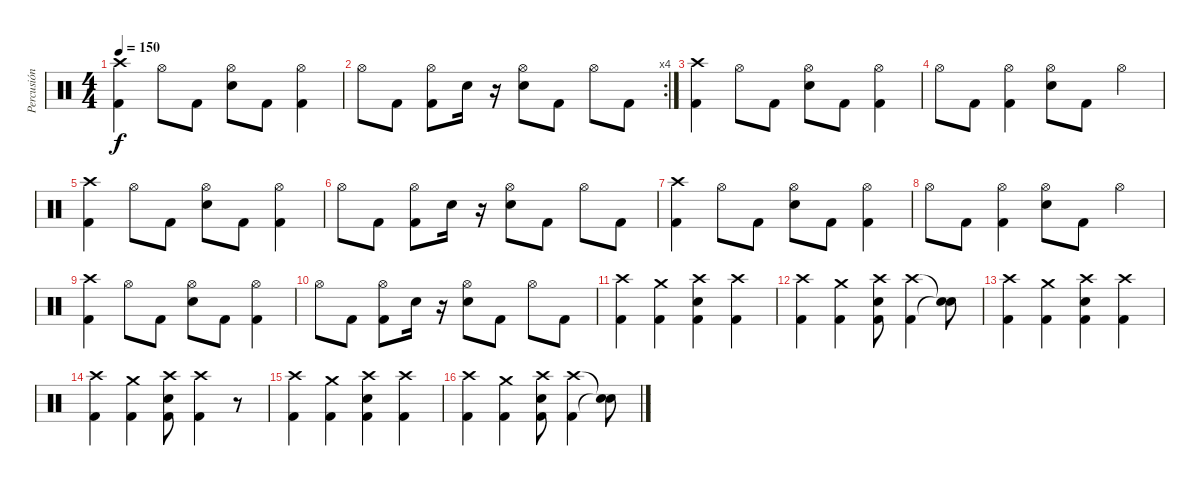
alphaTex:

\track ("Percusión" "Percusión") {instrument percussion}
\staff {score}
\articulation defaults
\ts (4 4)
\tempo 150
\clef neutral
\ks c
("Crash high (hit)" "Kick (hit) 2").4{dy f} "Hi-Hat (open)".8 "Kick (hit) 2".8 ("Hi-Hat (open)" "Snare (hit) 2").8 "Kick (hit) 2".8 ("Hi-Hat (open)" "Kick (hit) 2").4 |
\rc 4 "Hi-Hat (open)".8 "Kick (hit) 2".8
("Hi-Hat (open)" "Kick (hit) 2").8 "Snare (hit) 2".16 r.16 ("Hi-Hat (open)" "Snare (hit) 2").8 "Kick (hit) 2".8 "Hi-Hat (open)".8 "Kick (hit) 2".8 |
("Crash high (hit)" "Kick (hit) 2").4 "Hi-Hat (open)".8 "Kick (hit) 2".8 ("Hi-Hat (open)" "Snare (hit) 2").8 "Kick (hit) 2".8 ("Hi-Hat (open)" "Kick (hit) 2").4 |
"Hi-Hat (open)".8 "Kick (hit) 2".8 ("Hi-Hat (open)" "Kick (hit) 2").4 ("Hi-Hat (open)" "Snare (hit) 2").8 "Kick (hit) 2".8 "Hi-Hat (open)".4 |
("Crash high (hit)" "Kick (hit) 2").4 "Hi-Hat (open)".8 "Kick (hit) 2".8 ("Hi-Hat (open)" "Snare (hit) 2").8 "Kick (hit) 2".8 ("Hi-Hat (open)" "Kick (hit) 2").4 |
"Hi-Hat (open)".8 "Kick (hit) 2".8 ("Hi-Hat (open)" "Kick (hit) 2").8 "Snare (hit) 2".16 r.16 ("Hi-Hat (open)" "Snare (hit) 2").8 "Kick (hit) 2".8 "Hi-Hat (open)".8 "Kick (hit) 2".8 |
("Crash high (hit)" "Kick (hit) 2").4 "Hi-Hat (open)".8 "Kick (hit) 2".8 ("Hi-Hat (open)" "Snare (hit) 2").8 "Kick (hit) 2".8 ("Hi-Hat (open)" "Kick (hit) 2").4 |
"Hi-Hat (open)".8 "Kick (hit) 2".8 ("Hi-Hat (open)" "Kick (hit) 2").4 ("Hi-Hat (open)" "Snare (hit) 2").8 "Kick (hit) 2".8 "Hi-Hat (open)".4 |
("Crash high (hit)" "Kick (hit) 2").4 "Hi-Hat (open)".8 "Kick (hit) 2".8 ("Hi-Hat (open)" "Snare (hit) 2").8 "Kick (hit) 2".8 ("Hi-Hat (open)" "Kick (hit) 2").4 |
"Hi-Hat (open)".8 "Kick (hit) 2".8 ("Hi-Hat (open)" "Kick (hit) 2").8 "Snare (hit) 2".16 r.16 ("Hi-Hat (open)" "Snare (hit) 2").8 "Kick (hit) 2".8 "Hi-Hat (open)".8 "Kick (hit) 2".8 |
("Crash high (hit)" "Kick (hit) 2").4 ("Crash medium (hit)" "Kick (hit) 2").4 ("Crash high (hit)" "Snare (hit) 2" "Kick (hit) 2").4 ("Crash high (hit)" "Kick (hit) 2").4 |
("Crash high (hit)" "Kick (hit) 2").4 ("Crash medium (hit)" "Kick (hit) 2").4 ("Crash high (hit)" "Snare (hit) 2" "Kick (hit) 2").8 ("Crash high (hit)" "Kick (hit) 2").4 ("Snare (hit)"{t} "Snare (hit)"{t}).8 |
("Crash high (hit)" "Kick (hit) 2").4 ("Crash medium (hit)" "Kick (hit) 2").4 ("Crash high (hit)" "Snare (hit) 2" "Kick (hit) 2").4 ("Crash high (hit)" "Kick (hit) 2").4 |
("Crash high (hit)" "Kick (hit) 2").4 ("Crash medium (hit)" "Kick (hit) 2").4 ("Crash high (hit)" "Snare (hit) 2" "Kick (hit) 2").8 ("Crash high (hit)" "Kick (hit) 2").4 r.8 |
("Crash high (hit)" "Kick (hit) 2").4 ("Crash medium (hit)" "Kick (hit) 2").4 ("Crash high (hit)" "Snare (hit) 2" "Kick (hit) 2").4 ("Crash high (hit)" "Kick (hit) 2").4 |
("Crash high (hit)" "Kick (hit) 2").4 ("Crash medium (hit)" "Kick (hit) 2").4 ("Crash high (hit)" "Snare (hit) 2" "Kick (hit) 2").8 ("Crash high (hit)" "Kick (hit) 2").4 ("Snare (hit)"{t} "Snare (hit)"{t}).8
